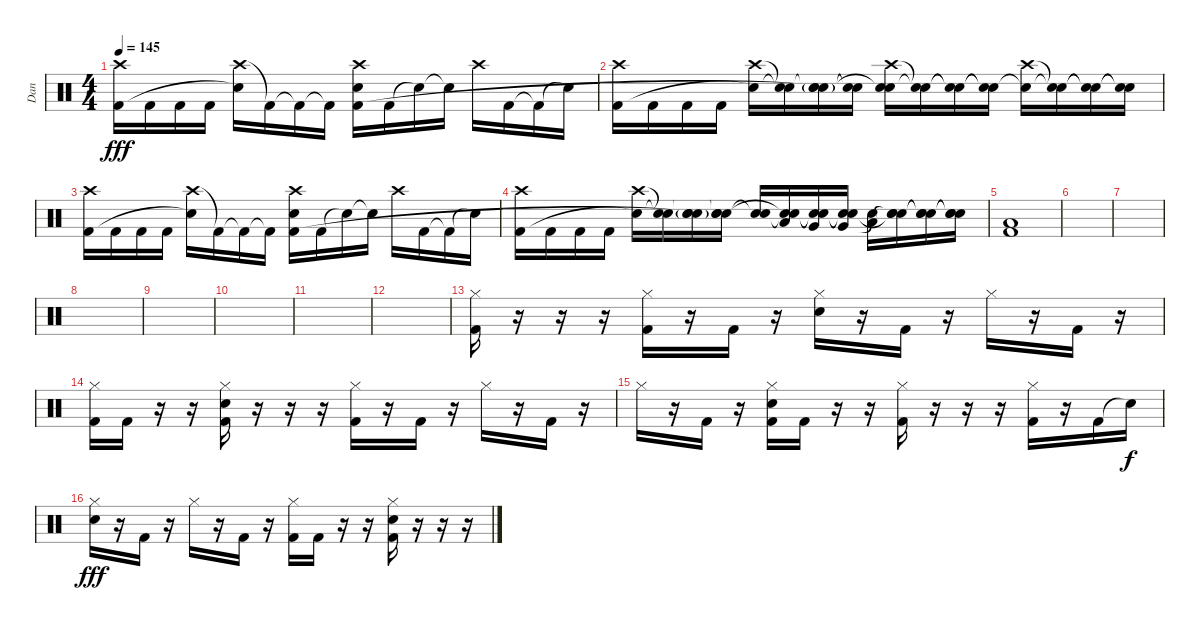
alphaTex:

\track ("Dan" "Dan") {instrument percussion}
\staff {score}
\articulation defaults
\ts (4 4)
\tempo 145
\clef neutral
\ks c
("Crash high (hit)" "Kick (hit) 2").16{dy fff} "Kick (hit) 2".16 "Kick (hit) 2".16 "Kick (hit) 2".16 ("Crash high (hit)" "Snare (hit)"{t}).16 "Kick (hit) 2"{t}.16 "Kick (hit) 2"{t}.16 "Kick (hit) 2"{t}.16 ("Crash high (hit)" "Electric Snare (hit)" "Kick (hit) 2").16 "Kick (hit) 2".16 "Snare (hit)"{t}.16 "Snare (hit)"{t}.16 "Crash high (hit)".16 "Kick (hit) 2".16 "Kick (hit) 2"{t}.16 "Snare (hit)"{t}.16 |
("Crash high (hit)" "Kick (hit) 2").16 "Kick (hit) 2".16 "Kick (hit) 2".16 "Kick (hit) 2".16 ("Crash high (hit)" "Snare (hit)"{t}).16 ("Snare (hit)"{t} "Snare (hit)"{t}).16 ("Snare (hit)"{t} "Electric Snare (hit)"{g} "Snare (hit)"{t}).16 ("Snare (hit)"{t} "Snare (hit)"{t}).16 ("Crash high (hit)" "Electric Snare (hit)" "Snare (hit)"{t}).16 ("Snare (hit)"{t} "Snare (hit)"{t}).16 ("Snare (hit)"{t} "Snare (hit)"{t}).16 ("Snare (hit)"{t} "Snare (hit)"{t}).16 ("Crash high (hit)" "Snare (hit)"{t}).16 ("Snare (hit)"{t} "Snare (hit)"{t}).16 ("Snare (hit)"{t} "Snare (hit)"{t}).16 ("Snare (hit)"{t} "Snare (hit)"{t}).16 |
("Crash high (hit)" "Kick (hit) 2").16 "Kick (hit) 2".16 "Kick (hit) 2".16 "Kick (hit) 2".16 ("Crash high (hit)" "Snare (hit)"{t}).16 "Kick (hit) 2"{t}.16 "Kick (hit) 2"{t}.16 "Kick (hit) 2"{t}.16 ("Crash high (hit)" "Electric Snare (hit)" "Kick (hit) 2").16 "Kick (hit) 2".16 "Snare (hit)"{t}.16 "Snare (hit)"{t}.16 "Crash high (hit)".16 "Kick (hit) 2".16 "Kick (hit) 2"{t}.16 "Snare (hit)"{t}.16 |
("Crash high (hit)" "Kick (hit) 2").16 "Kick (hit) 2".16 "Kick (hit) 2".16 "Kick (hit) 2".16 ("Crash high (hit)" "Snare (hit)"{t}).16 ("Snare (hit)"{t} "Snare (hit)"{t}).16 ("Snare (hit)"{t} "Electric Snare (hit)"{g} "Snare (hit)"{t}).16 ("Snare (hit)"{t} "Electric Snare (hit)" "Snare (hit)"{t}).16 ("Electric Snare (hit)" "Snare (hit)"{t}).16 ("Snare (hit)"{t} "Low Tom (hit)" "Snare (hit)"{t}).16 ("Snare (hit)"{t} "Very Low Tom (hit)" "Snare (hit)"{t}).16 ("Snare (hit)"{t} "Very Low Tom (hit)" "Snare (hit)"{t}).16 ("Low Floor Tom (hit)" "Snare (hit)"{t}).16 ("Snare (hit)"{t} "Electric Snare (hit)" "Snare (hit)"{t}).16 ("Snare (hit)"{t} "Electric Snare (hit)" "Snare (hit)"{t}).16 ("Snare (hit)"{t} "Electric Snare (hit)" "Snare (hit)"{t}).16 |
("Low Floor Tom (hit)" "Kick (hit) 2").1 |
|
|
|
|
|
|
|
("Hi-Hat (closed)" "Kick (hit) 2").16 r.16 r.16 r.16 ("Hi-Hat (closed)" "Kick (hit) 2").16 r.16 "Kick (hit) 2".16 r.16 ("Hi-Hat (closed)" "Electric Snare (hit)").16 r.16 "Kick (hit) 2".16 r.16 "Hi-Hat (closed)".16 r.16 "Kick (hit) 2".16 r.16 |
("Hi-Hat (closed)" "Kick (hit) 2").16 "Kick (hit) 2".16 r.16 r.16 ("Hi-Hat (closed)" "Electric Snare (hit)" "Kick (hit) 2").16 r.16 r.16 r.16 ("Hi-Hat (closed)" "Kick (hit) 2").16 r.16 "Kick (hit) 2".16 r.16 "Hi-Hat (closed)".16 r.16 "Kick (hit) 2".16 r.16 |
"Hi-Hat (closed)".16 r.16 "Kick (hit) 2".16 r.16 ("Hi-Hat (closed)" "Electric Snare (hit)" "Kick (hit) 2").16 "Kick (hit) 2".16 r.16 r.16 ("Hi-Hat (closed)" "Kick (hit) 2").16 r.16 r.16 r.16 ("Hi-Hat (closed)" "Kick (hit) 2").16 r.16 "Kick (hit) 2".16 "Snare (hit)"{t}.16{dy f} |
("Hi-Hat (closed)" "Electric Snare (hit)").16{dy fff} r.16 "Kick (hit) 2".16 r.16 "Hi-Hat (closed)".16 r.16 "Kick (hit) 2".16 r.16 ("Hi-Hat (closed)" "Kick (hit) 2").16 "Kick (hit) 2".16 r.16 r.16 ("Hi-Hat (closed)" "Electric Snare (hit)" "Kick (hit) 2").16 r.16 r.16 r.16
